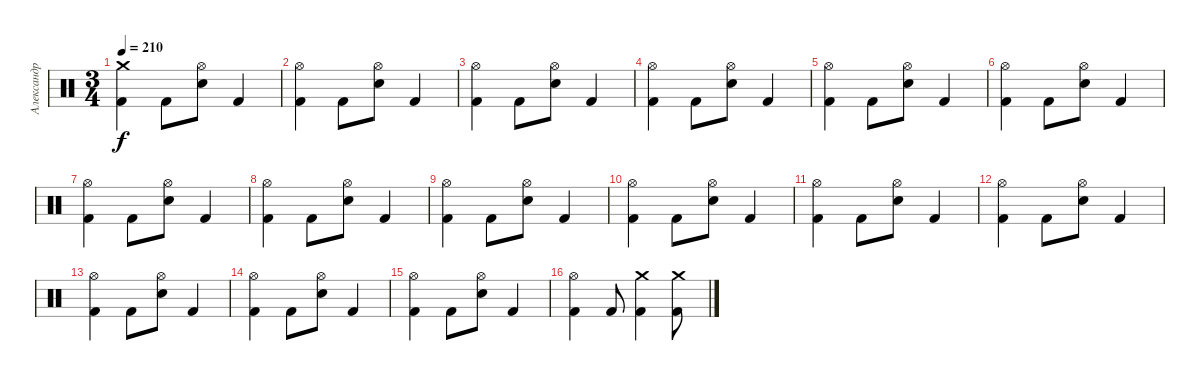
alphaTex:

\track ("Александр Манякин" "Александр ") {instrument percussion}
\staff {score}
\articulation defaults
\ts (3 4)
\tempo 210
\clef neutral
\ks c
("Crash medium (hit)" "Kick (hit) 2").4{dy f} "Kick (hit) 2".8 ("Hi-Hat (open)" "Snare (hit) 2").8 "Kick (hit) 2".4 |
("Hi-Hat (open)" "Kick (hit) 2").4 "Kick (hit) 2".8 ("Hi-Hat (open)" "Snare (hit) 2").8 "Kick (hit) 2".4 |
("Hi-Hat (open)" "Kick (hit) 2").4 "Kick (hit) 2".8 ("Hi-Hat (open)" "Snare (hit) 2").8 "Kick (hit) 2".4 |
("Hi-Hat (open)" "Kick (hit) 2").4 "Kick (hit) 2".8 ("Hi-Hat (open)" "Snare (hit) 2").8 "Kick (hit) 2".4 |
("Hi-Hat (open)" "Kick (hit) 2").4 "Kick (hit) 2".8 ("Hi-Hat (open)" "Snare (hit) 2").8 "Kick (hit) 2".4 |
("Hi-Hat (open)" "Kick (hit) 2").4 "Kick (hit) 2".8 ("Hi-Hat (open)" "Snare (hit) 2").8 "Kick (hit) 2".4 |
("Hi-Hat (open)" "Kick (hit) 2").4 "Kick (hit) 2".8 ("Hi-Hat (open)" "Snare (hit) 2").8 "Kick (hit) 2".4 |
("Hi-Hat (open)" "Kick (hit) 2").4 "Kick (hit) 2".8 ("Hi-Hat (open)" "Snare (hit) 2").8 "Kick (hit) 2".4 |
("Hi-Hat (open)" "Kick (hit) 2").4 "Kick (hit) 2".8 ("Hi-Hat (open)" "Snare (hit) 2").8 "Kick (hit) 2".4 |
("Hi-Hat (open)" "Kick (hit) 2").4 "Kick (hit) 2".8 ("Hi-Hat (open)" "Snare (hit) 2").8 "Kick (hit) 2".4 |
("Hi-Hat (open)" "Kick (hit) 2").4 "Kick (hit) 2".8 ("Hi-Hat (open)" "Snare (hit) 2").8 "Kick (hit) 2".4 |
("Hi-Hat (open)" "Kick (hit) 2").4 "Kick (hit) 2".8 ("Hi-Hat (open)" "Snare (hit) 2").8 "Kick (hit) 2".4 |
("Hi-Hat (open)" "Kick (hit) 2").4 "Kick (hit) 2".8 ("Hi-Hat (open)" "Snare (hit) 2").8 "Kick (hit) 2".4 |
("Hi-Hat (open)" "Kick (hit) 2").4 "Kick (hit) 2".8 ("Hi-Hat (open)" "Snare (hit) 2").8 "Kick (hit) 2".4 |
("Hi-Hat (open)" "Kick (hit) 2").4 "Kick (hit) 2".8 ("Hi-Hat (open)" "Snare (hit) 2").8 "Kick (hit) 2".4 |
("Hi-Hat (open)" "Kick (hit) 2").4 "Kick (hit) 2".8 ("Crash medium (hit)" "Kick (hit) 2").4 ("Crash medium (hit)" "Kick (hit) 2").8
